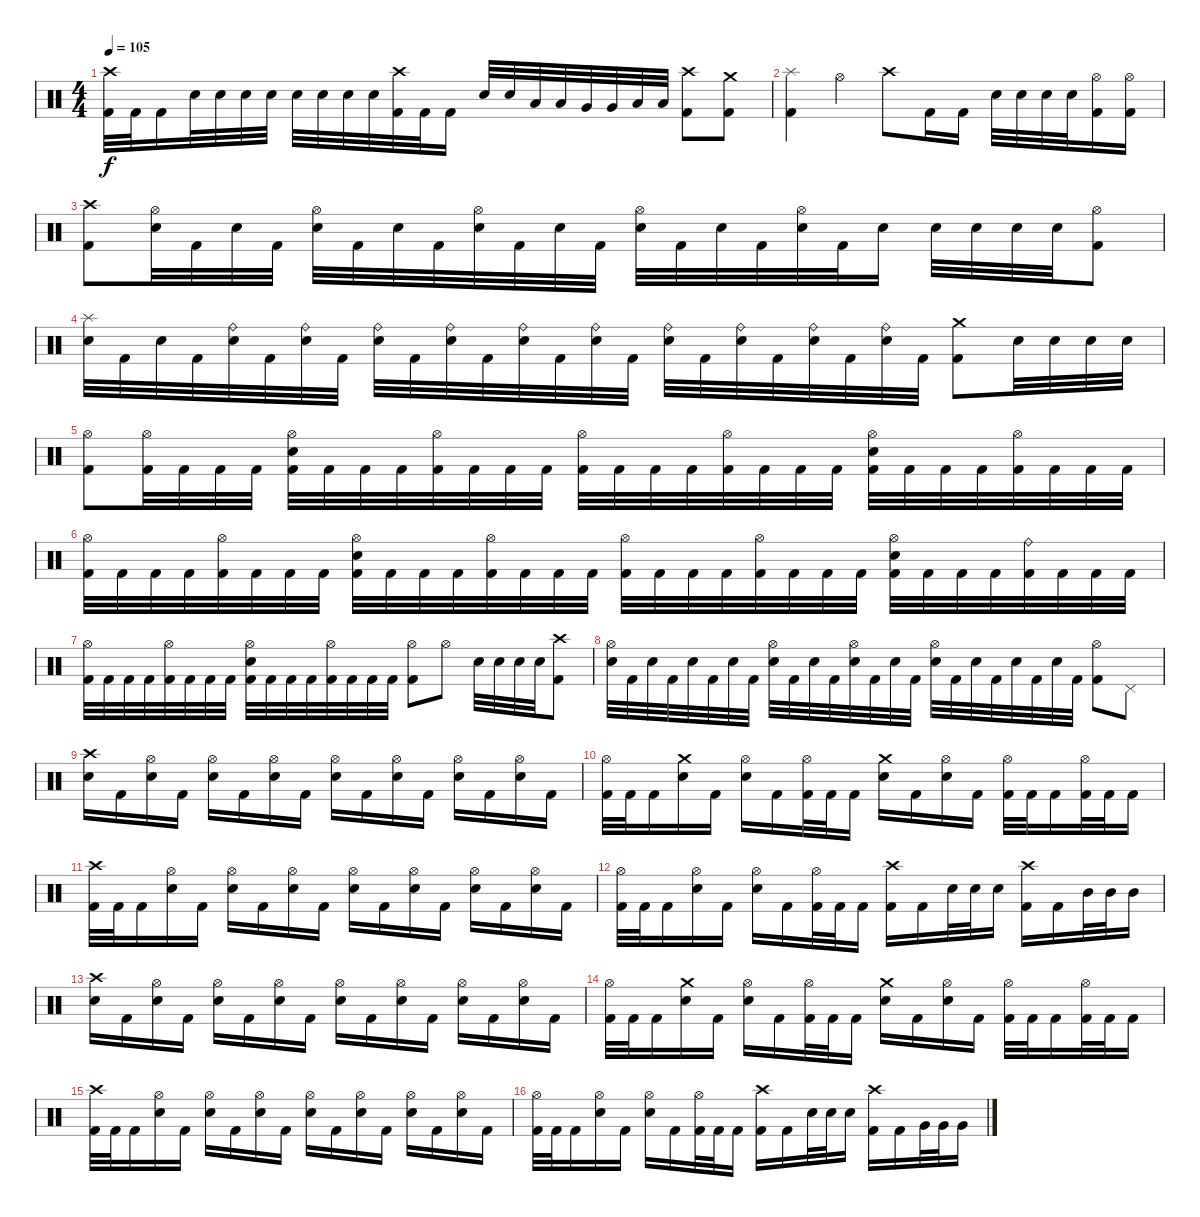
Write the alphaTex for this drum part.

\track "" {instrument percussion}
\staff {score}
\articulation defaults
\ts (4 4)
\section ("" "")
\tempo 105
\clef neutral
\ks c
("Crash high (hit)" "Kick (hit) 2").32{dy f} "Kick (hit) 2".32 "Kick (hit) 2".16 "Electric Snare (hit)".32 "Electric Snare (hit)".32 "Electric Snare (hit)".32 "Electric Snare (hit)".32 "Electric Snare (hit)".32 "Electric Snare (hit)".32 "Electric Snare (hit)".32 "Electric Snare (hit)".32 ("Crash high (hit)" "Kick (hit) 2").32 "Kick (hit) 2".32 "Kick (hit) 2".16 "Electric Snare (hit)".32 "Electric Snare (hit)".32 "Low Tom (hit)".32 "Low Tom (hit)".32 "Very Low Tom (hit)".32 "Very Low Tom (hit)".32 "Low Floor Tom (hit)".32 "Low Floor Tom (hit)".32 ("Crash high (hit)" "Kick (hit) 2").8 ("Crash medium (hit)" "Kick (hit) 2").8 |
("Splash (hit)" "Kick (hit) 2").4 "Hi-Hat (open)".4 "Crash high (hit)".8 "Kick (hit) 2".16 "Kick (hit) 2".16 "Electric Snare (hit)".32 "Electric Snare (hit)".32 "Electric Snare (hit)".32 "Electric Snare (hit)".32 ("Hi-Hat (open)" "Kick (hit) 2").16 ("Hi-Hat (open)" "Kick (hit) 2").16 |
("Crash high (hit)" "Kick (hit) 2").8 ("Hi-Hat (open)" "Electric Snare (hit)").32 "Kick (hit) 2".32 "Electric Snare (hit)".32 "Kick (hit) 2".32 ("Hi-Hat (open)" "Electric Snare (hit)").32 "Kick (hit) 2".32 "Electric Snare (hit)".32 "Kick (hit) 2".32 ("Hi-Hat (open)" "Electric Snare (hit)").32 "Kick (hit) 2".32 "Electric Snare (hit)".32 "Kick (hit) 2".32 ("Hi-Hat (open)" "Electric Snare (hit)").32 "Kick (hit) 2".32 "Electric Snare (hit)".32 "Kick (hit) 2".32 ("Hi-Hat (open)" "Electric Snare (hit)").32 "Kick (hit) 2".32 "Electric Snare (hit)".16 "Electric Snare (hit)".32 "Electric Snare (hit)".32 "Electric Snare (hit)".32 "Electric Snare (hit)".32 ("Hi-Hat (open)" "Kick (hit) 2").8 |
("Splash (hit)" "Electric Snare (hit)").32 "Kick (hit) 2".32 "Electric Snare (hit)".32 "Kick (hit) 2".32 ("Ride (bell)" "Electric Snare (hit)").32 "Kick (hit) 2".32 ("Ride (bell)" "Electric Snare (hit)").32 "Kick (hit) 2".32 ("Ride (bell)" "Electric Snare (hit)").32 "Kick (hit) 2".32 ("Ride (bell)" "Electric Snare (hit)").32 "Kick (hit) 2".32 ("Ride (bell)" "Electric Snare (hit)").32 "Kick (hit) 2".32 ("Ride (bell)" "Electric Snare (hit)").32 "Kick (hit) 2".32 ("Ride (bell)" "Electric Snare (hit)").32 "Kick (hit) 2".32 ("Ride (bell)" "Electric Snare (hit)").32 "Kick (hit) 2".32 ("Ride (bell)" "Electric Snare (hit)").32 "Kick (hit) 2".32 ("Ride (bell)" "Electric Snare (hit)").32 "Kick (hit) 2".32 ("Crash medium (hit)" "Kick (hit) 2").8 "Electric Snare (hit)".32 "Electric Snare (hit)".32 "Electric Snare (hit)".32 "Electric Snare (hit)".32 |
("Hi-Hat (open)" "Kick (hit) 2").8 ("Hi-Hat (open)" "Kick (hit) 2").32 "Kick (hit) 2".32 "Kick (hit) 2".32 "Kick (hit) 2".32 ("Hi-Hat (open)" "Electric Snare (hit)" "Kick (hit) 2").32 "Kick (hit) 2".32 "Kick (hit) 2".32 "Kick (hit) 2".32 ("Hi-Hat (open)" "Kick (hit) 2").32 "Kick (hit) 2".32 "Kick (hit) 2".32 "Kick (hit) 2".32 ("Hi-Hat (open)" "Kick (hit) 2").32 "Kick (hit) 2".32 "Kick (hit) 2".32 "Kick (hit) 2".32 ("Hi-Hat (open)" "Kick (hit) 2").32 "Kick (hit) 2".32 "Kick (hit) 2".32 "Kick (hit) 2".32 ("Hi-Hat (open)" "Electric Snare (hit)" "Kick (hit) 2").32 "Kick (hit) 2".32 "Kick (hit) 2".32 "Kick (hit) 2".32 ("Hi-Hat (open)" "Kick (hit) 2").32 "Kick (hit) 2".32 "Kick (hit) 2".32 "Kick (hit) 2".32 |
("Hi-Hat (open)" "Kick (hit) 2").32 "Kick (hit) 2".32 "Kick (hit) 2".32 "Kick (hit) 2".32 ("Hi-Hat (open)" "Kick (hit) 2").32 "Kick (hit) 2".32 "Kick (hit) 2".32 "Kick (hit) 2".32 ("Hi-Hat (open)" "Electric Snare (hit)" "Kick (hit) 2").32 "Kick (hit) 2".32 "Kick (hit) 2".32 "Kick (hit) 2".32 ("Hi-Hat (open)" "Kick (hit) 2").32 "Kick (hit) 2".32 "Kick (hit) 2".32 "Kick (hit) 2".32 ("Hi-Hat (open)" "Kick (hit) 2").32 "Kick (hit) 2".32 "Kick (hit) 2".32 "Kick (hit) 2".32 ("Hi-Hat (open)" "Kick (hit) 2").32 "Kick (hit) 2".32 "Kick (hit) 2".32 "Kick (hit) 2".32 ("Hi-Hat (open)" "Electric Snare (hit)" "Kick (hit) 2").32 "Kick (hit) 2".32 "Kick (hit) 2".32 "Kick (hit) 2".32 ("Ride (bell)" "Kick (hit) 2").32 "Kick (hit) 2".32 "Kick (hit) 2".32 "Kick (hit) 2".32 |
("Hi-Hat (open)" "Kick (hit) 2").32 "Kick (hit) 2".32 "Kick (hit) 2".32 "Kick (hit) 2".32 ("Hi-Hat (open)" "Kick (hit) 2").32 "Kick (hit) 2".32 "Kick (hit) 2".32 "Kick (hit) 2".32 ("Hi-Hat (open)" "Electric Snare (hit)" "Kick (hit) 2").32 "Kick (hit) 2".32 "Kick (hit) 2".32 "Kick (hit) 2".32 ("Hi-Hat (open)" "Kick (hit) 2").32 "Kick (hit) 2".32 "Kick (hit) 2".32 "Kick (hit) 2".32 ("Hi-Hat (open)" "Kick (hit) 2").8 "Hi-Hat (open)".8 "Electric Snare (hit)".32 "Electric Snare (hit)".32 "Electric Snare (hit)".32 "Electric Snare (hit)".32 ("Crash high (hit)" "Kick (hit) 2").8 |
("Hi-Hat (open)" "Electric Snare (hit)").32 "Kick (hit) 2".32 "Electric Snare (hit)".32 "Kick (hit) 2".32 "Electric Snare (hit)".32 "Kick (hit) 2".32 "Electric Snare (hit)".32 "Kick (hit) 2".32 ("Hi-Hat (open)" "Electric Snare (hit)").32 "Kick (hit) 2".32 "Electric Snare (hit)".32 "Kick (hit) 2".32 ("Hi-Hat (open)" "Electric Snare (hit)").32 "Kick (hit) 2".32 "Electric Snare (hit)".32 "Kick (hit) 2".32 ("Hi-Hat (open)" "Electric Snare (hit)").32 "Kick (hit) 2".32 "Electric Snare (hit)".32 "Kick (hit) 2".32 "Electric Snare (hit)".32 "Kick (hit) 2".32 "Electric Snare (hit)".32 "Kick (hit) 2".32 ("Hi-Hat (open)" "Kick (hit) 2").8 "Pedal Hi-Hat (hit)".8 |
\section ("" "")
("Crash high (hit)" "Electric Snare (hit)").16 "Kick (hit) 2".16 ("Hi-Hat (open)" "Electric Snare (hit)").16 "Kick (hit) 2".16 ("Hi-Hat (open)" "Electric Snare (hit)").16 "Kick (hit) 2".16 ("Hi-Hat (open)" "Electric Snare (hit)").16 "Kick (hit) 2".16 ("Hi-Hat (open)" "Electric Snare (hit)").16 "Kick (hit) 2".16 ("Hi-Hat (open)" "Electric Snare (hit)").16 "Kick (hit) 2".16 ("Hi-Hat (open)" "Electric Snare (hit)").16 "Kick (hit) 2".16 ("Hi-Hat (open)" "Electric Snare (hit)").16 "Kick (hit) 2".16 |
("Hi-Hat (open)" "Kick (hit) 2").32 "Kick (hit) 2".32 "Kick (hit) 2".16 ("Crash medium (hit)" "Electric Snare (hit)").16 "Kick (hit) 2".16 ("Hi-Hat (open)" "Electric Snare (hit)").16 "Kick (hit) 2".16 ("Hi-Hat (open)" "Kick (hit) 2").32 "Kick (hit) 2".32 "Kick (hit) 2".16 ("Crash medium (hit)" "Electric Snare (hit)").16 "Kick (hit) 2".16 ("Hi-Hat (open)" "Electric Snare (hit)").16 "Kick (hit) 2".16 ("Hi-Hat (open)" "Kick (hit) 2").32 "Kick (hit) 2".32 "Kick (hit) 2".16 ("Hi-Hat (open)" "Kick (hit) 2").32 "Kick (hit) 2".32 "Kick (hit) 2".16 |
("Crash high (hit)" "Kick (hit) 2").32 "Kick (hit) 2".32 "Kick (hit) 2".16 ("Hi-Hat (open)" "Electric Snare (hit)").16 "Kick (hit) 2".16 ("Hi-Hat (open)" "Electric Snare (hit)").16 "Kick (hit) 2".16 ("Hi-Hat (open)" "Electric Snare (hit)").16 "Kick (hit) 2".16 ("Hi-Hat (open)" "Electric Snare (hit)").16 "Kick (hit) 2".16 ("Hi-Hat (open)" "Electric Snare (hit)").16 "Kick (hit) 2".16 ("Hi-Hat (open)" "Electric Snare (hit)").16 "Kick (hit) 2".16 ("Hi-Hat (open)" "Electric Snare (hit)").16 "Kick (hit) 2".16 |
("Hi-Hat (open)" "Kick (hit) 2").32 "Kick (hit) 2".32 "Kick (hit) 2".16 ("Hi-Hat (open)" "Electric Snare (hit)").16 "Kick (hit) 2".16 ("Hi-Hat (open)" "Electric Snare (hit)").16 "Kick (hit) 2".16 ("Hi-Hat (open)" "Kick (hit) 2").32 "Kick (hit) 2".32 "Kick (hit) 2".16 ("Crash high (hit)" "Kick (hit) 2").16 "Kick (hit) 2".16 "Electric Snare (hit)".32 "Electric Snare (hit)".32 "Electric Snare (hit)".16 ("Crash high (hit)" "Kick (hit) 2").16 "Kick (hit) 2".16 "Mid Tom (hit)".32 "Mid Tom (hit)".32 "Mid Tom (hit)".16 |
("Crash high (hit)" "Electric Snare (hit)").16 "Kick (hit) 2".16 ("Hi-Hat (open)" "Electric Snare (hit)").16 "Kick (hit) 2".16 ("Hi-Hat (open)" "Electric Snare (hit)").16 "Kick (hit) 2".16 ("Hi-Hat (open)" "Electric Snare (hit)").16 "Kick (hit) 2".16 ("Hi-Hat (open)" "Electric Snare (hit)").16 "Kick (hit) 2".16 ("Hi-Hat (open)" "Electric Snare (hit)").16 "Kick (hit) 2".16 ("Hi-Hat (open)" "Electric Snare (hit)").16 "Kick (hit) 2".16 ("Hi-Hat (open)" "Electric Snare (hit)").16 "Kick (hit) 2".16 |
("Hi-Hat (open)" "Kick (hit) 2").32 "Kick (hit) 2".32 "Kick (hit) 2".16 ("Crash medium (hit)" "Electric Snare (hit)").16 "Kick (hit) 2".16 ("Hi-Hat (open)" "Electric Snare (hit)").16 "Kick (hit) 2".16 ("Hi-Hat (open)" "Kick (hit) 2").32 "Kick (hit) 2".32 "Kick (hit) 2".16 ("Crash medium (hit)" "Electric Snare (hit)").16 "Kick (hit) 2".16 ("Hi-Hat (open)" "Electric Snare (hit)").16 "Kick (hit) 2".16 ("Hi-Hat (open)" "Kick (hit) 2").32 "Kick (hit) 2".32 "Kick (hit) 2".16 ("Hi-Hat (open)" "Kick (hit) 2").32 "Kick (hit) 2".32 "Kick (hit) 2".16 |
("Crash high (hit)" "Kick (hit) 2").32 "Kick (hit) 2".32 "Kick (hit) 2".16 ("Hi-Hat (open)" "Electric Snare (hit)").16 "Kick (hit) 2".16 ("Hi-Hat (open)" "Electric Snare (hit)").16 "Kick (hit) 2".16 ("Hi-Hat (open)" "Electric Snare (hit)").16 "Kick (hit) 2".16 ("Hi-Hat (open)" "Electric Snare (hit)").16 "Kick (hit) 2".16 ("Hi-Hat (open)" "Electric Snare (hit)").16 "Kick (hit) 2".16 ("Hi-Hat (open)" "Electric Snare (hit)").16 "Kick (hit) 2".16 ("Hi-Hat (open)" "Electric Snare (hit)").16 "Kick (hit) 2".16 |
("Hi-Hat (open)" "Kick (hit) 2").32 "Kick (hit) 2".32 "Kick (hit) 2".16 ("Hi-Hat (open)" "Electric Snare (hit)").16 "Kick (hit) 2".16 ("Hi-Hat (open)" "Electric Snare (hit)").16 "Kick (hit) 2".16 ("Hi-Hat (open)" "Kick (hit) 2").32 "Kick (hit) 2".32 "Kick (hit) 2".16 ("Crash high (hit)" "Kick (hit) 2").16 "Kick (hit) 2".16 "Electric Snare (hit)".32 "Electric Snare (hit)".32 "Electric Snare (hit)".16 ("Crash high (hit)" "Kick (hit) 2").16 "Kick (hit) 2".16 "Very Low Tom (hit)".32 "Very Low Tom (hit)".32 "Very Low Tom (hit)".16
